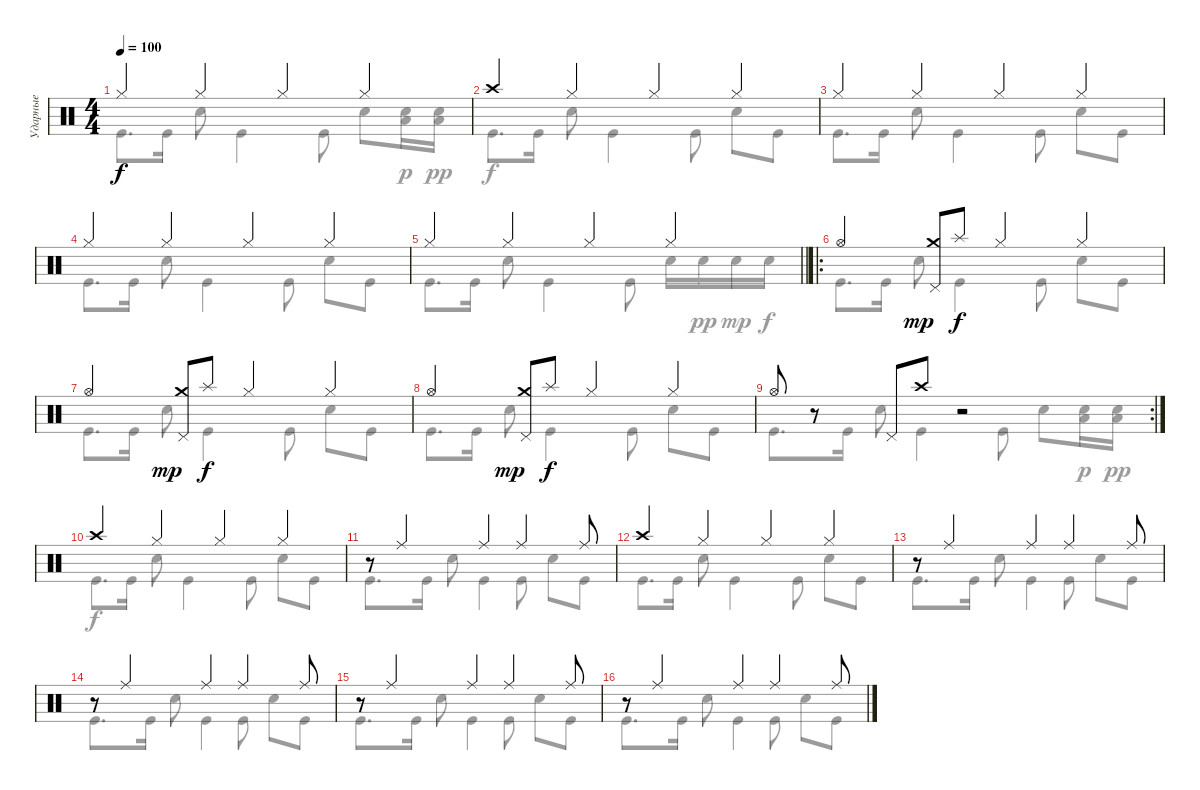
\track ("Ударные" "Ударные") {instrument percussion}
\staff {score}
\articulation defaults
\voice
\ts (4 4)
\tempo 100
\clef neutral
\ks c "Hi-Hat (closed)".4{dy f} "Hi-Hat (closed)".4 "Hi-Hat (closed)".4 "Hi-Hat (closed)".4
|
"Crash high (hit)".4 "Hi-Hat (closed)".4 "Hi-Hat (closed)".4 "Hi-Hat (closed)".4 |
"Hi-Hat (closed)".4 "Hi-Hat (closed)".4 "Hi-Hat (closed)".4 "Hi-Hat (closed)".4 |
"Hi-Hat (closed)".4 "Hi-Hat (closed)".4 "Hi-Hat (closed)".4 "Hi-Hat (closed)".4 |
\barLineRight lightlight "Hi-Hat (closed)".4 "Hi-Hat (closed)".4 "Hi-Hat (closed)".4 "Hi-Hat (closed)".4
|
\ro "Hi-Hat (open)".4
("Crash medium (hit)" "Pedal Hi-Hat (hit)").8{dy mp} "Splash (hit)".8{dy f} "Hi-Hat (closed)".4 "Hi-Hat (closed)".4 |
"Hi-Hat (open)".4 ("Crash medium (hit)" "Pedal Hi-Hat (hit)").8{dy mp} "Splash (hit)".8{dy f} "Hi-Hat (closed)".4 "Hi-Hat (closed)".4 |
"Hi-Hat (open)".4 ("Crash medium (hit)" "Pedal Hi-Hat (hit)").8{dy mp} "Splash (hit)".8{dy f} "Hi-Hat (closed)".4 "Hi-Hat (closed)".4 |
\rc 2 "Hi-Hat (open)".8
r.8 "Pedal Hi-Hat (hit)".8 "Crash high (hit)".8 r.2 |
"Crash high (hit)".4 "Hi-Hat (closed)".4 "Hi-Hat (closed)".4 "Hi-Hat (closed)".4 |
r.8 "Ride (middle)".4 "Ride (middle)".4 "Ride (middle)".4 "Ride (middle)".8 |
"Crash high (hit)".4 "Hi-Hat (closed)".4 "Hi-Hat (closed)".4 "Hi-Hat (closed)".4 |
r.8 "Ride (middle)".4 "Ride (middle)".4 "Ride (middle)".4 "Ride (middle)".8 |
r.8 "Ride (middle)".4 "Ride (middle)".4 "Ride (middle)".4 "Ride (middle)".8 |
r.8 "Ride (middle)".4 "Ride (middle)".4 "Ride (middle)".4 "Ride (middle)".8 |
r.8 "Ride (middle)".4 "Ride (middle)".4 "Ride (middle)".4 "Ride (middle)".8
\voice
\clef neutral
\ottava regular
\simile none
\ks c "Kick (hit)".8{d dy f} "Kick (hit)".16 "Snare (hit) 2".8 "Kick (hit)".4 "Kick (hit)".8 "Snare (hit) 2".8
("Snare (hit) 2" "Low Tom (hit)").16{dy p} ("Snare (hit) 2" "Low Floor Tom (hit)").16{dy pp} |
"Kick (hit)".8{d dy f} "Kick (hit)".16 "Snare (hit) 2".8 "Kick (hit)".4 "Kick (hit)".8 "Snare (hit) 2".8 "Kick (hit)".8 |
"Kick (hit)".8{d} "Kick (hit)".16 "Snare (hit) 2".8 "Kick (hit)".4 "Kick (hit)".8 "Snare (hit) 2".8 "Kick (hit)".8 |
"Kick (hit)".8{d} "Kick (hit)".16 "Snare (hit) 2".8 "Kick (hit)".4 "Kick (hit)".8 "Snare (hit) 2".8 "Kick (hit)".8 |
\barLineRight lightlight "Kick (hit)".8{d} "Kick (hit)".16 "Snare (hit) 2".8 "Kick (hit)".4 "Kick (hit)".8 "Snare (hit) 2".16 "Snare (hit) 2".16{dy pp} "Snare (hit) 2".16{dy mp} "Snare (hit) 2".16{dy f}
|
"Kick (hit)".8{d} "Kick (hit)".16 "Snare (hit) 2".8 "Kick (hit)".4 "Kick (hit)".8 "Snare (hit) 2".8 "Kick (hit)".8 |
"Kick (hit)".8{d} "Kick (hit)".16 "Snare (hit) 2".8 "Kick (hit)".4 "Kick (hit)".8 "Snare (hit) 2".8 "Kick (hit)".8 |
"Kick (hit)".8{d} "Kick (hit)".16 "Snare (hit) 2".8 "Kick (hit)".4 "Kick (hit)".8 "Snare (hit) 2".8 "Kick (hit)".8 |
"Kick (hit)".8{d} "Kick (hit)".16 "Snare (hit) 2".8 "Kick (hit)".4 "Kick (hit)".8 "Snare (hit) 2".8 ("Snare (hit) 2" "Low Tom (hit)").16{dy p} ("Snare (hit) 2" "Low Floor Tom (hit)").16{dy pp} |
"Kick (hit)".8{d dy f} "Kick (hit)".16 "Snare (hit) 2".8 "Kick (hit)".4 "Kick (hit)".8 "Snare (hit) 2".8 "Kick (hit)".8 |
"Kick (hit)".8{d} "Kick (hit)".16 "Snare (hit) 2".8 "Kick (hit)".4 "Kick (hit)".8 "Snare (hit) 2".8 "Kick (hit)".8 |
"Kick (hit)".8{d} "Kick (hit)".16 "Snare (hit) 2".8 "Kick (hit)".4 "Kick (hit)".8 "Snare (hit) 2".8 "Kick (hit)".8 |
"Kick (hit)".8{d} "Kick (hit)".16 "Snare (hit) 2".8 "Kick (hit)".4 "Kick (hit)".8 "Snare (hit) 2".8 "Kick (hit)".8 |
"Kick (hit)".8{d} "Kick (hit)".16 "Snare (hit) 2".8 "Kick (hit)".4 "Kick (hit)".8 "Snare (hit) 2".8 "Kick (hit)".8 |
"Kick (hit)".8{d} "Kick (hit)".16 "Snare (hit) 2".8 "Kick (hit)".4 "Kick (hit)".8 "Snare (hit) 2".8 "Kick (hit)".8 |
"Kick (hit)".8{d} "Kick (hit)".16 "Snare (hit) 2".8 "Kick (hit)".4 "Kick (hit)".8 "Snare (hit) 2".8 "Kick (hit)".8
